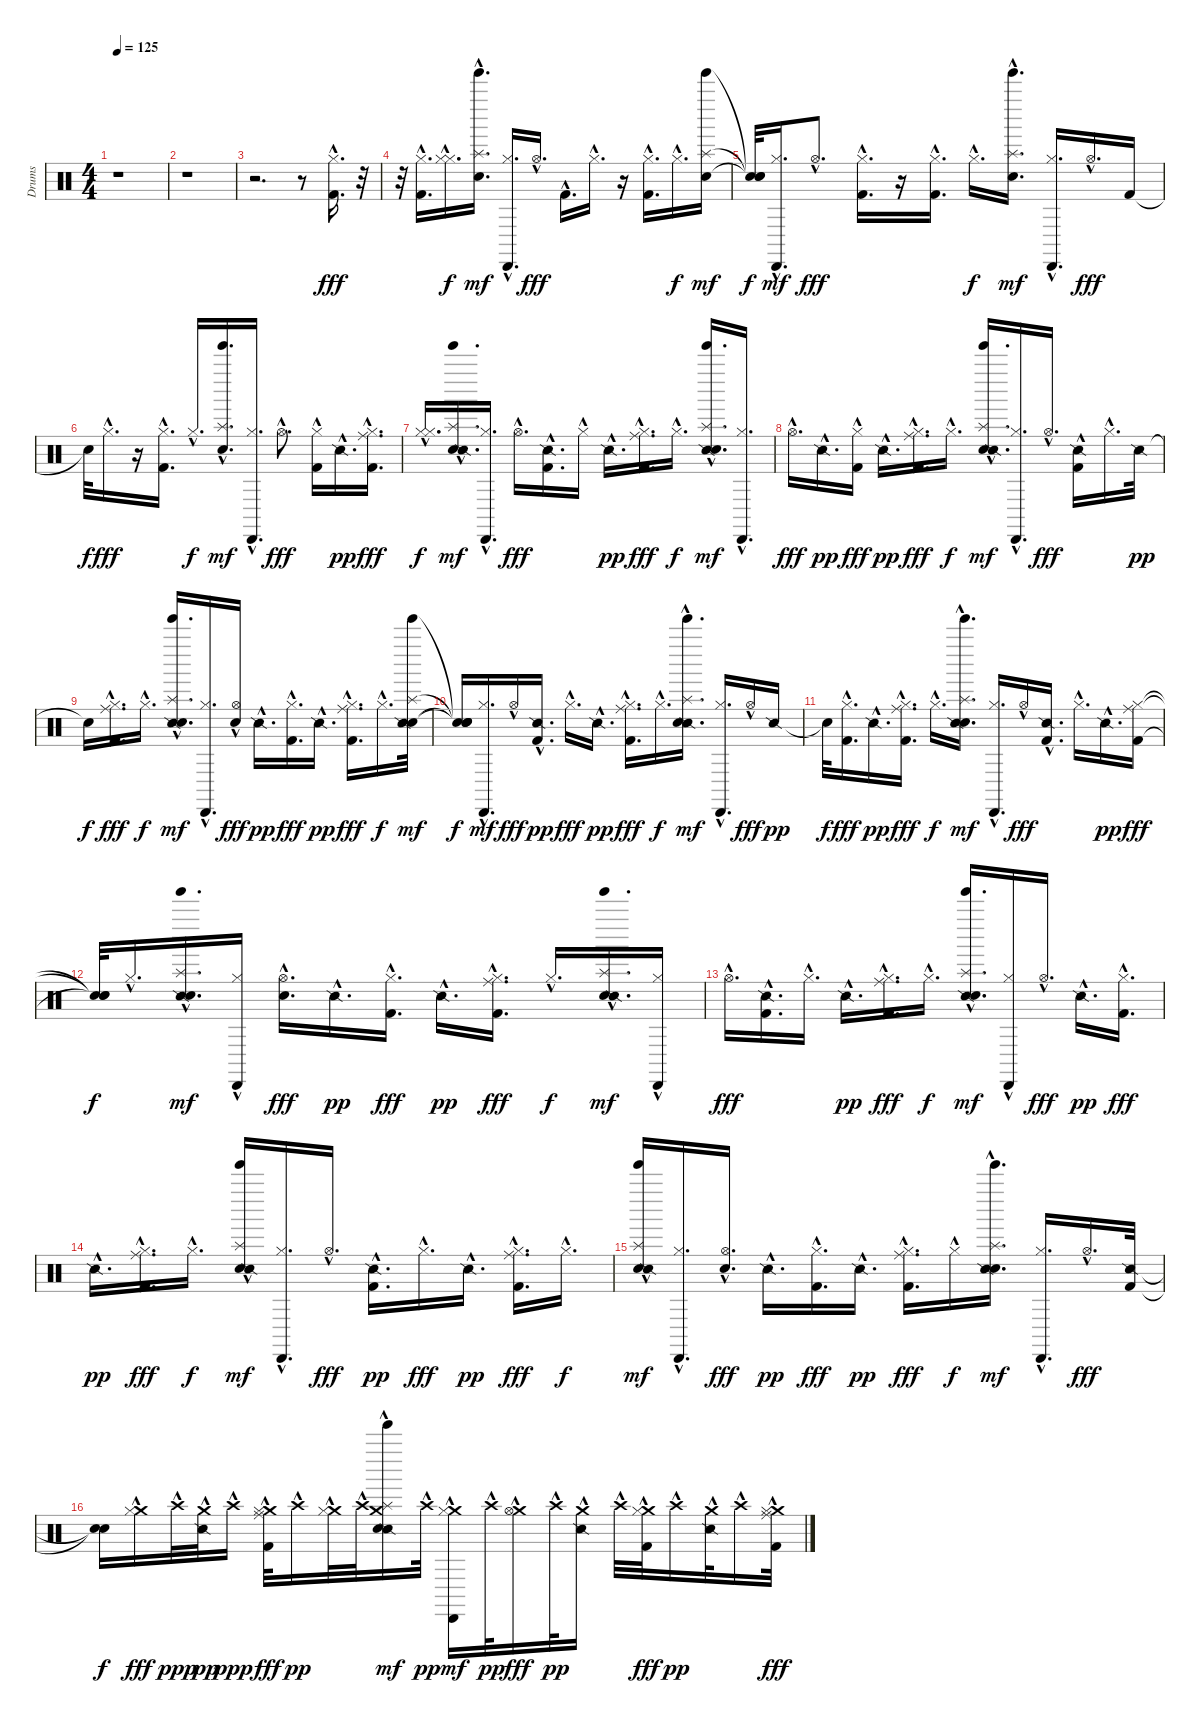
\track ("Drums" "Drums") {instrument percussion}
\staff {score}
\articulation defaults
\ts (4 4)
\tempo 125
\clef neutral
\ks c
r.1{dy fff} |
r.1 |
r.2{d} r.8 ("Hi-Hat (closed)"{hac} "Kick (hit) 2"{hac}).16{d volume 16} r.32 |
r.32 ("Kick (hit) 2"{hac} "Hi-Hat (closed)"{hac}).16{d} ("Hi-Hat (closed)"{hac} "Hi-Hat (closed)"{hac}).16{d dy f} ("Hand Clap (hit)"{hac} "Tinkle Bell (hit)"{hac} "Splash (hit)"{hac}).16{d dy mf} ("Cabasa (hit)"{hac} "Hi-Hat (closed)"{hac}).16{d} "Hi-Hat (open)"{hac}.16{d dy fff} "Kick (hit) 2"{hac}.16{d} "Hi-Hat (closed)"{hac}.16{d} r.16 ("Kick (hit) 2"{hac} "Hi-Hat (closed)"{hac}).16{d} "Hi-Hat (closed)"{hac}.16{d dy f} ("Hand Clap (hit)" "Tinkle Bell (hit)" "Splash (hit)").16{dy mf} |
("Snare (hit)"{t} "Snare (hit)"{t} "Snare (hit)"{t}).32{dy f} ("Cabasa (hit)"{hac} "Hi-Hat (closed)"{hac}).16{d dy mf} "Hi-Hat (open)"{hac}.8{d dy fff} ("Kick (hit) 2"{hac} "Hi-Hat (closed)"{hac}).16{d} r.16 ("Hi-Hat (closed)"{hac} "Kick (hit) 2"{hac}).16{d} "Hi-Hat (closed)"{hac}.16{d dy f} ("Hand Clap (hit)"{hac} "Tinkle Bell (hit)"{hac} "Splash (hit)"{hac}).16{d dy mf} ("Hi-Hat (closed)"{hac} "Cabasa (hit)"{hac}).16{d} "Hi-Hat (open)"{hac}.16{d dy fff} "Kick (hit) 2".16 |
"Snare (hit)"{t}.32{dy f} "Hi-Hat (closed)"{hac}.16{d dy fff} r.16 ("Hi-Hat (closed)"{hac} "Kick (hit) 2"{hac}).16{d} "Hi-Hat (closed)"{hac}.16{d dy f} ("Hand Clap (hit)"{hac} "Tinkle Bell (hit)"{hac} "Splash (hit)"{hac}).16{d dy mf} ("Hi-Hat (closed)"{hac} "Cabasa (hit)"{hac}).16{d} "Hi-Hat (open)"{hac}.8{d dy fff} ("Hi-Hat (closed)"{hac} "Kick (hit) 2"{hac}).16 "Snare (side stick) 2"{hac}.16{d dy pp} ("Hi-Hat (closed)"{hac} "Kick (hit) 2"{hac} "Ride (middle)"{hac}).16{d dy fff} |
("Hi-Hat (closed)"{hac} "Hi-Hat (closed)"{hac}).16{d dy f} ("Hand Clap (hit)"{hac} "Snare (side stick) 2"{hac} "Tinkle Bell (hit)"{hac} "Splash (hit)"{hac}).16{d dy mf} ("Cabasa (hit)"{hac} "Hi-Hat (closed)"{hac}).16{d} "Hi-Hat (open)"{hac}.16{d dy fff} ("Snare (side stick) 2"{hac} "Kick (hit) 2"{hac}).16{d} "Hi-Hat (closed)"{hac}.16 "Snare (side stick) 2"{hac}.16{d dy pp} ("Kick (hit) 2"{hac} "Hi-Hat (closed)"{hac} "Ride (middle)"{hac}).16{d dy fff} "Hi-Hat (closed)"{hac}.16{d dy f} ("Snare (side stick) 2"{hac} "Hand Clap (hit)"{hac} "Tinkle Bell (hit)"{hac} "Splash (hit)"{hac}).16{d dy mf} ("Hi-Hat (closed)"{hac} "Cabasa (hit)"{hac}).16{d} |
"Hi-Hat (open)"{hac}.16{d dy fff} "Snare (side stick) 2"{hac}.16{d dy pp} ("Kick (hit) 2"{hac} "Hi-Hat (closed)"{hac}).16{dy fff} "Snare (side stick) 2"{hac}.16{d dy pp} ("Ride (middle)"{hac} "Kick (hit) 2"{hac} "Hi-Hat (closed)"{hac}).16{d dy fff} "Hi-Hat (closed)"{hac}.16{d dy f} ("Hand Clap (hit)"{hac} "Snare (side stick) 2"{hac} "Tinkle Bell (hit)"{hac} "Splash (hit)"{hac}).16{d dy mf} ("Hi-Hat (closed)"{hac} "Cabasa (hit)"{hac}).16{d} "Hi-Hat (open)"{hac}.16{d dy fff} ("Snare (side stick) 2"{hac} "Kick (hit) 2"{hac}).16 "Hi-Hat (closed)"{hac}.16{d} "Snare (side stick) 2".32{dy pp} |
"Snare (hit)"{t}.16{dy f} ("Ride (middle)"{hac} "Kick (hit) 2"{hac} "Hi-Hat (closed)"{hac}).16{d dy fff} "Hi-Hat (closed)"{hac}.16{d dy f} ("Snare (side stick) 2"{hac} "Hand Clap (hit)"{hac} "Tinkle Bell (hit)"{hac} "Splash (hit)"{hac}).16{d dy mf} ("Hi-Hat (closed)"{hac} "Cabasa (hit)"{hac}).16{d} ("Hi-Hat (open)"{hac} "Hand Clap (hit)"{hac}).16{dy fff} "Snare (side stick) 2"{hac}.16{d dy pp} ("Kick (hit) 2"{hac} "Hi-Hat (closed)"{hac}).16{d dy fff} "Snare (side stick) 2"{hac}.16{d dy pp} ("Hi-Hat (closed)"{hac} "Ride (middle)"{hac} "Kick (hit) 2"{hac}).16{d dy fff} "Hi-Hat (closed)"{hac}.16{d dy f} ("Hand Clap (hit)" "Snare (side stick) 2" "Tinkle Bell (hit)" "Splash (hit)").32{dy mf} |
("Snare (hit)"{t} "Snare (hit)"{t} "Snare (hit)"{t} "Snare (hit)"{t}).16{dy f} ("Hi-Hat (closed)"{hac} "Cabasa (hit)"{hac}).16{d dy mf} "Hi-Hat (open)"{hac}.16{dy fff} ("Kick (hit) 2"{hac} "Snare (side stick) 2"{hac}).16{d dy pp} "Hi-Hat (closed)"{hac}.16{d dy fff} "Snare (side stick) 2"{hac}.16{d dy pp} ("Kick (hit) 2"{hac} "Hi-Hat (closed)"{hac} "Ride (middle)"{hac}).16{d dy fff} "Hi-Hat (closed)"{hac}.16{d dy f} ("Snare (side stick) 2"{hac} "Hand Clap (hit)"{hac} "Tinkle Bell (hit)"{hac} "Splash (hit)"{hac}).16{d dy mf} ("Cabasa (hit)"{hac} "Hi-Hat (closed)"{hac}).16{d} "Hi-Hat (open)"{hac}.16{dy fff} "Snare (side stick) 2".16{dy pp} |
"Snare (hit)"{t}.32{dy f} ("Hi-Hat (closed)"{hac} "Kick (hit) 2"{hac}).16{d dy fff} "Snare (side stick) 2"{hac}.16{d dy pp} ("Ride (middle)"{hac} "Kick (hit) 2"{hac} "Hi-Hat (closed)"{hac}).16{d dy fff} "Hi-Hat (closed)"{hac}.16{d dy f} ("Hand Clap (hit)"{hac} "Snare (side stick) 2"{hac} "Tinkle Bell (hit)"{hac} "Splash (hit)"{hac}).16{d dy mf} ("Hi-Hat (closed)"{hac} "Cabasa (hit)"{hac}).16{d} "Hi-Hat (open)"{hac}.16{dy fff} ("Snare (side stick) 2"{hac} "Kick (hit) 2"{hac}).16{d} "Hi-Hat (closed)"{hac}.16{d} "Snare (side stick) 2"{hac}.16{d dy pp} ("Ride (middle)" "Hi-Hat (closed)" "Kick (hit) 2").16{dy fff} |
("Snare (hit)"{t} "Snare (hit)"{t} "Snare (hit)"{t}).32{dy f} "Hi-Hat (closed)"{hac}.16{d} ("Snare (side stick) 2"{hac} "Hand Clap (hit)"{hac} "Tinkle Bell (hit)"{hac} "Splash (hit)"{hac}).16{d dy mf} ("Cabasa (hit)"{hac} "Hi-Hat (closed)"{hac}).16 ("Hand Clap (hit)"{hac} "Hi-Hat (open)"{hac}).16{d dy fff} "Snare (side stick) 2"{hac}.16{d dy pp} ("Kick (hit) 2"{hac} "Hi-Hat (closed)"{hac}).16{d dy fff} "Snare (side stick) 2"{hac}.16{d dy pp} ("Ride (middle)"{hac} "Hi-Hat (closed)"{hac} "Kick (hit) 2"{hac}).16{d dy fff} "Hi-Hat (closed)"{hac}.16{d dy f} ("Hand Clap (hit)"{hac} "Snare (side stick) 2"{hac} "Tinkle Bell (hit)"{hac} "Splash (hit)"{hac}).16{d dy mf} ("Cabasa (hit)"{hac} "Hi-Hat (closed)"{hac}).16 |
"Hi-Hat (open)"{hac}.16{d dy fff} ("Snare (side stick) 2"{hac} "Kick (hit) 2"{hac}).16{d} "Hi-Hat (closed)"{hac}.16{d} "Snare (side stick) 2"{hac}.16{d dy pp} ("Kick (hit) 2"{hac} "Hi-Hat (closed)"{hac} "Ride (middle)"{hac}).16{d dy fff} "Hi-Hat (closed)"{hac}.16{d dy f} ("Snare (side stick) 2"{hac} "Hand Clap (hit)"{hac} "Tinkle Bell (hit)"{hac} "Splash (hit)"{hac}).16{d dy mf} ("Hi-Hat (closed)"{hac} "Cabasa (hit)"{hac}).16 "Hi-Hat (open)"{hac}.16{d dy fff} "Snare (side stick) 2"{hac}.16{d dy pp} ("Hi-Hat (closed)"{hac} "Kick (hit) 2"{hac}).16{d dy fff} |
"Snare (side stick) 2"{hac}.16{d dy pp} ("Hi-Hat (closed)"{hac} "Ride (middle)"{hac} "Kick (hit) 2"{hac}).16{d dy fff} "Hi-Hat (closed)"{hac}.16{d dy f} ("Hand Clap (hit)"{hac} "Snare (side stick) 2"{hac} "Tinkle Bell (hit)"{hac} "Splash (hit)"{hac}).16{dy mf} ("Cabasa (hit)"{hac} "Hi-Hat (closed)"{hac}).16{d} "Hi-Hat (open)"{hac}.16{d dy fff} ("Kick (hit) 2"{hac} "Snare (side stick) 2"{hac}).16{d dy pp} "Hi-Hat (closed)"{hac}.16{d dy fff} "Snare (side stick) 2"{hac}.16{d dy pp} ("Kick (hit) 2"{hac} "Hi-Hat (closed)"{hac} "Ride (middle)"{hac}).16{d dy fff} "Hi-Hat (closed)"{hac}.16{d dy f} |
("Hand Clap (hit)"{hac} "Snare (side stick) 2"{hac} "Tinkle Bell (hit)"{hac} "Splash (hit)"{hac}).16{dy mf} ("Hi-Hat (closed)"{hac} "Cabasa (hit)"{hac}).16{d} ("Hi-Hat (open)"{hac} "Hand Clap (hit)"{hac}).16{d dy fff} "Snare (side stick) 2"{hac}.16{d dy pp} ("Hi-Hat (closed)"{hac} "Kick (hit) 2"{hac}).16{d dy fff} "Snare (side stick) 2"{hac}.16{d dy pp} ("Ride (middle)"{hac} "Hi-Hat (closed)"{hac} "Kick (hit) 2"{hac}).16{d dy fff} "Hi-Hat (closed)"{hac}.16{dy f} ("Hand Clap (hit)"{hac} "Snare (side stick) 2"{hac} "Tinkle Bell (hit)"{hac} "Splash (hit)"{hac}).16{d dy mf} ("Cabasa (hit)"{hac} "Hi-Hat (closed)"{hac}).16{d} "Hi-Hat (open)"{hac}.16{d dy fff} ("Snare (side stick) 2" "Kick (hit) 2").32 |
("Snare (hit)"{t} "Snare (hit)"{t}).16{dy f} ("Crash medium (hit)"{hac} "Hi-Hat (closed)"{hac}).16{dy fff} "Crash high (hit)"{hac}.32{dy ppp} ("Crash medium (hit)"{hac} "Snare (side stick) 2"{hac}).32{dy pp} "Crash high (hit)"{hac}.16{dy ppp} ("Crash medium (hit)"{hac} "Hi-Hat (closed)"{hac} "Kick (hit) 2"{hac} "Ride (middle)"{hac}).32{dy fff} "Crash high (hit)"{hac}.16{dy pp} ("Crash medium (hit)"{hac} "Hi-Hat (closed)"{hac}).32 "Crash high (hit)"{hac}.32 ("Crash medium (hit)"{hac} "Snare (side stick) 2"{hac} "Hand Clap (hit)"{hac} "Tinkle Bell (hit)"{hac} "Splash (hit)"{hac}).16{dy mf} "Crash high (hit)"{hac}.32{dy pp} ("Crash medium (hit)"{hac} "Hi-Hat (closed)"{hac} "Cabasa (hit)"{hac}).16{dy mf} "Crash high (hit)"{hac}.32{dy pp} ("Crash medium (hit)"{hac} "Hi-Hat (open)"{hac}).16{dy fff} "Crash high (hit)"{hac}.32{dy pp} ("Crash medium (hit)"{hac} "Snare (side stick) 2"{hac}).16 "Crash high (hit)"{hac}.32 ("Crash medium (hit)"{hac} "Kick (hit) 2"{hac} "Hi-Hat (closed)"{hac}).32{dy fff} "Crash high (hit)"{hac}.16{dy pp} ("Crash medium (hit)"{hac} "Snare (side stick) 2"{hac}).32 "Crash high (hit)"{hac}.16 ("Crash medium (hit)"{hac} "Hi-Hat (closed)"{hac} "Kick (hit) 2"{hac} "Ride (middle)"{hac}).32{dy fff}
